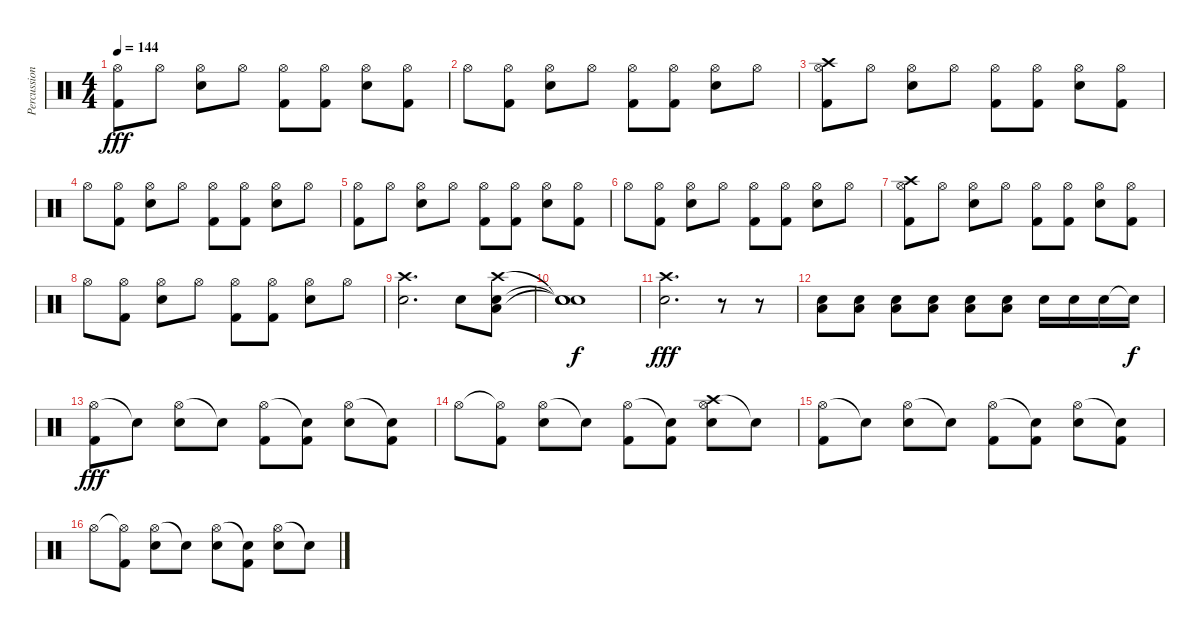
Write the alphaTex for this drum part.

\track ("Percussion" "Percussion") {instrument percussion}
\staff {score}
\articulation defaults
\ts (4 4)
\tempo 144
\clef neutral
\ks c
("Hi-Hat (open)" "Kick (hit) 2").8{dy fff} "Hi-Hat (open)".8 ("Hi-Hat (open)" "Electric Snare (hit)").8 "Hi-Hat (open)".8 ("Hi-Hat (open)" "Kick (hit) 2").8 ("Hi-Hat (open)" "Kick (hit) 2").8 ("Hi-Hat (open)" "Electric Snare (hit)").8 ("Hi-Hat (open)" "Kick (hit) 2").8 |
"Hi-Hat (open)".8 ("Hi-Hat (open)" "Kick (hit) 2").8 ("Hi-Hat (open)" "Electric Snare (hit)").8 "Hi-Hat (open)".8 ("Hi-Hat (open)" "Kick (hit) 2").8 ("Hi-Hat (open)" "Kick (hit) 2").8 ("Hi-Hat (open)" "Electric Snare (hit)").8 "Hi-Hat (open)".8 |
("Crash high (hit)" "Hi-Hat (open)" "Kick (hit) 2").8 "Hi-Hat (open)".8 ("Hi-Hat (open)" "Electric Snare (hit)").8 "Hi-Hat (open)".8 ("Hi-Hat (open)" "Kick (hit) 2").8 ("Hi-Hat (open)" "Kick (hit) 2").8 ("Hi-Hat (open)" "Electric Snare (hit)").8 ("Hi-Hat (open)" "Kick (hit) 2").8 |
"Hi-Hat (open)".8 ("Hi-Hat (open)" "Kick (hit) 2").8 ("Hi-Hat (open)" "Electric Snare (hit)").8 "Hi-Hat (open)".8 ("Hi-Hat (open)" "Kick (hit) 2").8 ("Hi-Hat (open)" "Kick (hit) 2").8 ("Hi-Hat (open)" "Electric Snare (hit)").8 "Hi-Hat (open)".8 |
("Hi-Hat (open)" "Kick (hit) 2").8 "Hi-Hat (open)".8 ("Hi-Hat (open)" "Electric Snare (hit)").8 "Hi-Hat (open)".8 ("Hi-Hat (open)" "Kick (hit) 2").8 ("Hi-Hat (open)" "Kick (hit) 2").8 ("Hi-Hat (open)" "Electric Snare (hit)").8 ("Hi-Hat (open)" "Kick (hit) 2").8 |
"Hi-Hat (open)".8 ("Hi-Hat (open)" "Kick (hit) 2").8 ("Hi-Hat (open)" "Electric Snare (hit)").8 "Hi-Hat (open)".8 ("Hi-Hat (open)" "Kick (hit) 2").8 ("Hi-Hat (open)" "Kick (hit) 2").8 ("Hi-Hat (open)" "Electric Snare (hit)").8 "Hi-Hat (open)".8 |
("Crash high (hit)" "Hi-Hat (open)" "Kick (hit) 2").8 "Hi-Hat (open)".8 ("Hi-Hat (open)" "Electric Snare (hit)").8 "Hi-Hat (open)".8 ("Hi-Hat (open)" "Kick (hit) 2").8 ("Hi-Hat (open)" "Kick (hit) 2").8 ("Hi-Hat (open)" "Electric Snare (hit)").8 ("Hi-Hat (open)" "Kick (hit) 2").8 |
"Hi-Hat (open)".8 ("Hi-Hat (open)" "Kick (hit) 2").8 ("Hi-Hat (open)" "Electric Snare (hit)").8 "Hi-Hat (open)".8 ("Hi-Hat (open)" "Kick (hit) 2").8 ("Hi-Hat (open)" "Kick (hit) 2").8 ("Hi-Hat (open)" "Electric Snare (hit)").8 "Hi-Hat (open)".8 |
("Crash high (hit)" "Electric Snare (hit)").2{d} "Electric Snare (hit)".8 ("Crash high (hit)" "Electric Snare (hit)" "Low Floor Tom (hit)").8 |
("Snare (hit)"{t} "Snare (hit)"{t} "Snare (hit)"{t}).1{dy f} |
("Crash high (hit)" "Electric Snare (hit)").2{d dy fff} r.8 r.8 |
("Electric Snare (hit)" "Low Floor Tom (hit)").8 ("Electric Snare (hit)" "Low Floor Tom (hit)").8 ("Electric Snare (hit)" "Low Floor Tom (hit)").8 ("Electric Snare (hit)" "Low Floor Tom (hit)").8 ("Electric Snare (hit)" "Low Floor Tom (hit)").8 ("Electric Snare (hit)" "Low Floor Tom (hit)").8 "Electric Snare (hit)".16 "Electric Snare (hit)".16 "Electric Snare (hit)".16 "Snare (hit)"{t}.16{dy f} |
("Hi-Hat (open)" "Kick (hit) 2").8{dy fff} "Snare (hit)"{t}.8 ("Hi-Hat (open)" "Electric Snare (hit)").8 "Snare (hit)"{t}.8 ("Hi-Hat (open)" "Kick (hit) 2").8 ("Snare (hit)"{t} "Kick (hit) 2").8 ("Hi-Hat (open)" "Electric Snare (hit)").8 ("Snare (hit)"{t} "Kick (hit) 2").8 |
"Hi-Hat (open)".8 ("Hi-Hat (open)"{t} "Kick (hit) 2").8 ("Hi-Hat (open)" "Electric Snare (hit)").8 "Snare (hit)"{t}.8 ("Hi-Hat (open)" "Kick (hit) 2").8 ("Snare (hit)"{t} "Kick (hit) 2").8 ("Crash high (hit)" "Hi-Hat (open)" "Electric Snare (hit)").8 "Snare (hit)"{t}.8 |
("Hi-Hat (open)" "Kick (hit) 2").8 "Snare (hit)"{t}.8 ("Hi-Hat (open)" "Electric Snare (hit)").8 "Snare (hit)"{t}.8 ("Hi-Hat (open)" "Kick (hit) 2").8 ("Snare (hit)"{t} "Kick (hit) 2").8 ("Hi-Hat (open)" "Electric Snare (hit)").8 ("Snare (hit)"{t} "Kick (hit) 2").8 |
"Hi-Hat (open)".8 ("Hi-Hat (open)"{t} "Kick (hit) 2").8 ("Hi-Hat (open)" "Electric Snare (hit)").8 "Snare (hit)"{t}.8 ("Hi-Hat (open)" "Electric Snare (hit)").8 ("Snare (hit)"{t} "Kick (hit) 2").8 ("Hi-Hat (open)" "Electric Snare (hit)").8 "Snare (hit)"{t}.8
